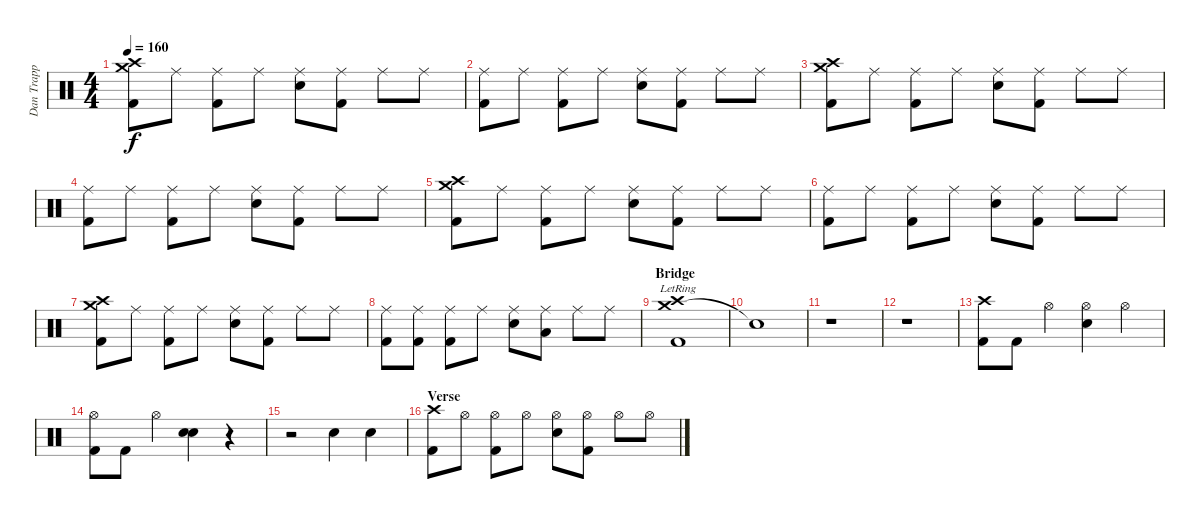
\track ("Dan Trapp" "Dan Trapp") {instrument percussion}
\staff {score}
\articulation defaults
\ts (4 4)
\tempo 160
\clef neutral
\ks c
("Crash medium (hit)" "Crash high (hit)" "Kick (hit) 2").8{dy f} "Ride (middle)".8 ("Ride (middle)" "Kick (hit) 2").8 "Ride (middle)".8 ("Ride (middle)" "Snare (hit) 2").8 ("Ride (middle)" "Kick (hit) 2").8 "Ride (middle)".8 "Ride (middle)".8 |
("Ride (middle)" "Kick (hit) 2").8 "Ride (middle)".8 ("Ride (middle)" "Kick (hit) 2").8 "Ride (middle)".8 ("Ride (middle)" "Snare (hit) 2").8 ("Ride (middle)" "Kick (hit) 2").8 "Ride (middle)".8 "Ride (middle)".8 |
("Crash medium (hit)" "Crash high (hit)" "Kick (hit) 2").8 "Ride (middle)".8 ("Ride (middle)" "Kick (hit) 2").8 "Ride (middle)".8 ("Ride (middle)" "Snare (hit) 2").8 ("Ride (middle)" "Kick (hit) 2").8 "Ride (middle)".8 "Ride (middle)".8 |
("Ride (middle)" "Kick (hit) 2").8 "Ride (middle)".8 ("Ride (middle)" "Kick (hit) 2").8 "Ride (middle)".8 ("Ride (middle)" "Snare (hit) 2").8 ("Ride (middle)" "Kick (hit) 2").8 "Ride (middle)".8 "Ride (middle)".8 |
("Crash medium (hit)" "Crash high (hit)" "Kick (hit) 2").8 "Ride (middle)".8 ("Ride (middle)" "Kick (hit) 2").8 "Ride (middle)".8 ("Ride (middle)" "Snare (hit) 2").8 ("Ride (middle)" "Kick (hit) 2").8 "Ride (middle)".8 "Ride (middle)".8 |
("Ride (middle)" "Kick (hit) 2").8 "Ride (middle)".8 ("Ride (middle)" "Kick (hit) 2").8 "Ride (middle)".8 ("Ride (middle)" "Snare (hit) 2").8 ("Ride (middle)" "Kick (hit) 2").8 "Ride (middle)".8 "Ride (middle)".8 |
("Crash medium (hit)" "Crash high (hit)" "Kick (hit) 2").8 "Ride (middle)".8 ("Ride (middle)" "Kick (hit) 2").8 "Ride (middle)".8 ("Ride (middle)" "Snare (hit) 2").8 ("Ride (middle)" "Kick (hit) 2").8 "Ride (middle)".8 "Ride (middle)".8 |
("Ride (middle)" "Kick (hit) 2").8 ("Ride (middle)" "Kick (hit) 2").8 ("Ride (middle)" "Kick (hit) 2").8 "Ride (middle)".8 ("Ride (middle)" "Snare (hit) 2").8 ("Ride (middle)" "Low Tom (hit)").8 "Ride (middle)".8 "Ride (middle)".8 |
\section ("" "Bridge")
("Crash medium (hit)"{lr} "Crash high (hit)"{lr} "Kick (hit) 2").1 |
"Snare (hit)"{t}.1 |
r.1 |
r.1 |
("Crash high (hit)" "Kick (hit) 2").8 "Kick (hit) 2".8 "Hi-Hat (open)".4 ("Hi-Hat (open)" "Snare (hit) 2").4 "Hi-Hat (open)".4 |
("Hi-Hat (open)" "Kick (hit) 2").8 "Kick (hit) 2".8 "Hi-Hat (open)".4 ("Snare (hit) 2" "Snare (hit) 2").4 r.4 |
r.2 "Snare (hit) 2".4 "Snare (hit) 2".4 |
\section ("" "Verse")
("Crash high (hit)" "Kick (hit) 2").8 "Hi-Hat (open)".8 ("Hi-Hat (open)" "Kick (hit) 2").8 "Hi-Hat (open)".8 ("Hi-Hat (open)" "Snare (hit) 2").8 ("Hi-Hat (open)" "Kick (hit) 2").8 "Hi-Hat (open)".8 "Hi-Hat (open)".8
